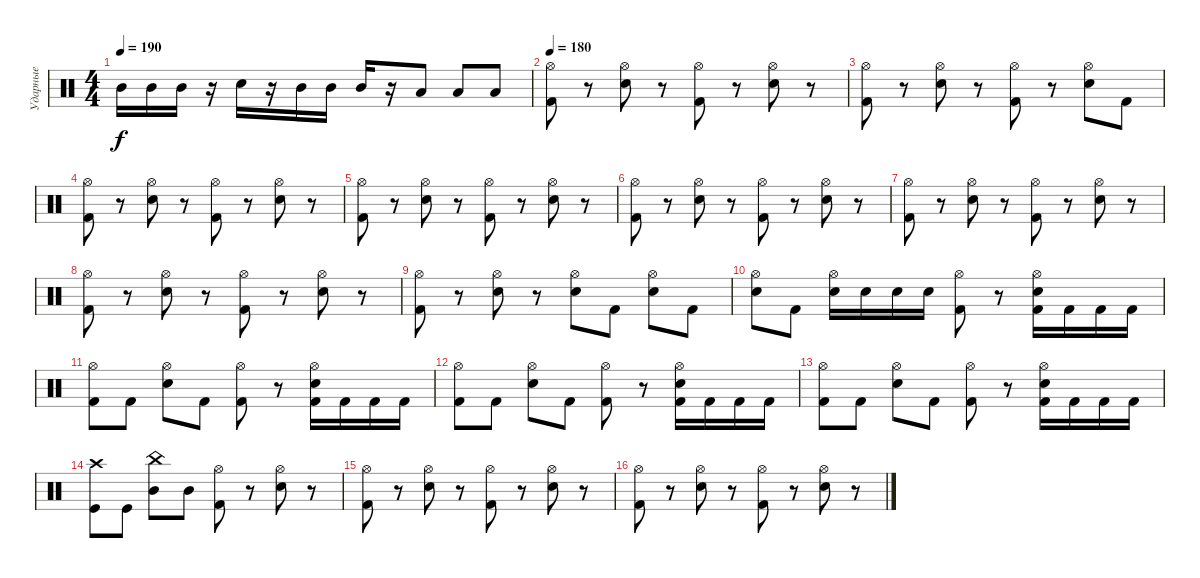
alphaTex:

\track ("Ударные" "Ударные") {instrument percussion}
\staff {score}
\articulation defaults
\ts (4 4)
\tempo 190
\clef neutral
\ks c "Mid Tom (hit)".16{dy f} "Mid Tom (hit)".16 "Mid Tom (hit)".16
r.16 "Electric Snare (hit)".16 r.16 "Mid Tom (hit)".16 "Mid Tom (hit)".16 "Mid Tom (hit)".16 r.16 "Low Tom (hit)".8 "Low Tom (hit)".8 "Low Tom (hit)".8 |
\tempo 180
("Kick (hit) 2" "Hi-Hat (open)").8 r.8 ("Electric Snare (hit)" "Hi-Hat (open)").8 r.8 ("Kick (hit) 2" "Hi-Hat (open)").8 r.8 ("Electric Snare (hit)" "Hi-Hat (open)").8 r.8 |
("Kick (hit) 2" "Hi-Hat (open)").8 r.8 ("Electric Snare (hit)" "Hi-Hat (open)").8 r.8 ("Kick (hit) 2" "Hi-Hat (open)").8 r.8 ("Electric Snare (hit)" "Hi-Hat (open)").8 "Kick (hit) 2".8 |
("Kick (hit) 2" "Hi-Hat (open)").8 r.8 ("Electric Snare (hit)" "Hi-Hat (open)").8 r.8 ("Kick (hit) 2" "Hi-Hat (open)").8 r.8 ("Electric Snare (hit)" "Hi-Hat (open)").8 r.8 |
("Kick (hit) 2" "Hi-Hat (open)").8 r.8 ("Electric Snare (hit)" "Hi-Hat (open)").8 r.8 ("Kick (hit) 2" "Hi-Hat (open)").8 r.8 ("Electric Snare (hit)" "Hi-Hat (open)").8 r.8 |
("Kick (hit) 2" "Hi-Hat (open)").8 r.8 ("Electric Snare (hit)" "Hi-Hat (open)").8 r.8 ("Kick (hit) 2" "Hi-Hat (open)").8 r.8 ("Electric Snare (hit)" "Hi-Hat (open)").8 r.8 |
("Kick (hit) 2" "Hi-Hat (open)").8 r.8 ("Electric Snare (hit)" "Hi-Hat (open)").8 r.8 ("Kick (hit) 2" "Hi-Hat (open)").8 r.8 ("Electric Snare (hit)" "Hi-Hat (open)").8 r.8 |
("Kick (hit) 2" "Hi-Hat (open)").8 r.8 ("Electric Snare (hit)" "Hi-Hat (open)").8 r.8 ("Kick (hit) 2" "Hi-Hat (open)").8 r.8 ("Electric Snare (hit)" "Hi-Hat (open)").8 r.8 |
("Kick (hit) 2" "Hi-Hat (open)").8 r.8 ("Electric Snare (hit)" "Hi-Hat (open)").8 r.8 ("Electric Snare (hit)" "Hi-Hat (open)").8 "Kick (hit) 2".8 ("Electric Snare (hit)" "Hi-Hat (open)").8 "Kick (hit) 2".8 |
("Electric Snare (hit)" "Hi-Hat (open)").8 "Kick (hit) 2".8 ("Electric Snare (hit)" "Hi-Hat (open)").16 "Electric Snare (hit)".16 "Electric Snare (hit)".16 "Electric Snare (hit)".16 ("Kick (hit) 2" "Hi-Hat (open)").8 r.8 ("Kick (hit) 2" "Electric Snare (hit)" "Hi-Hat (open)").16 "Kick (hit) 2".16 "Kick (hit) 2".16 "Kick (hit) 2".16 |
("Kick (hit) 2" "Hi-Hat (open)").8 "Kick (hit) 2".8 ("Electric Snare (hit)" "Hi-Hat (open)").8 "Kick (hit) 2".8 ("Kick (hit) 2" "Hi-Hat (open)").8 r.8 ("Kick (hit) 2" "Electric Snare (hit)" "Hi-Hat (open)").16 "Kick (hit) 2".16 "Kick (hit) 2".16 "Kick (hit) 2".16 |
("Kick (hit) 2" "Hi-Hat (open)").8 "Kick (hit) 2".8 ("Electric Snare (hit)" "Hi-Hat (open)").8 "Kick (hit) 2".8 ("Kick (hit) 2" "Hi-Hat (open)").8 r.8 ("Kick (hit) 2" "Electric Snare (hit)" "Hi-Hat (open)").16 "Kick (hit) 2".16 "Kick (hit) 2".16 "Kick (hit) 2".16 |
("Kick (hit) 2" "Hi-Hat (open)").8 "Kick (hit) 2".8 ("Electric Snare (hit)" "Hi-Hat (open)").8 "Kick (hit) 2".8 ("Kick (hit) 2" "Hi-Hat (open)").8 r.8 ("Kick (hit) 2" "Electric Snare (hit)" "Hi-Hat (open)").16 "Kick (hit) 2".16 "Kick (hit) 2".16 "Kick (hit) 2".16 |
("Kick (hit)" "Crash high (hit)").8 "Kick (hit)".8 ("Mid Tom (hit)" "China (hit)").8 "Mid Tom (hit)".8 ("Kick (hit) 2" "Hi-Hat (open)").8 r.8 ("Electric Snare (hit)" "Hi-Hat (open)").8 r.8 |
("Kick (hit) 2" "Hi-Hat (open)").8 r.8 ("Electric Snare (hit)" "Hi-Hat (open)").8 r.8 ("Kick (hit) 2" "Hi-Hat (open)").8 r.8 ("Electric Snare (hit)" "Hi-Hat (open)").8 r.8 |
("Kick (hit) 2" "Hi-Hat (open)").8 r.8 ("Electric Snare (hit)" "Hi-Hat (open)").8 r.8 ("Kick (hit) 2" "Hi-Hat (open)").8 r.8 ("Electric Snare (hit)" "Hi-Hat (open)").8 r.8
